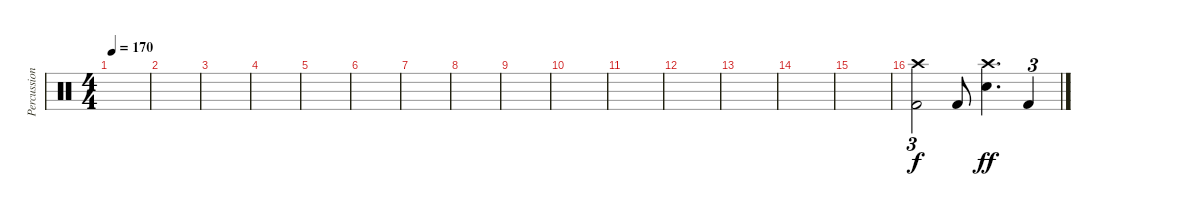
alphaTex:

\track ("Percussion" "Percussion") {instrument percussion bank 127}
\staff {score}
\articulation defaults
\ts (4 4)
\tempo 170
\clef neutral
\ks c
|
|
|
|
|
|
|
|
|
|
|
|
|
|
|
("Crash high (hit)" "Kick (hit) 2").2{tu (3 2) dy f} "Kick (hit) 2".8 ("Crash high (hit)" "Snare (hit) 2").4{d dy ff} "Kick (hit) 2".4{tu (3 2)}
